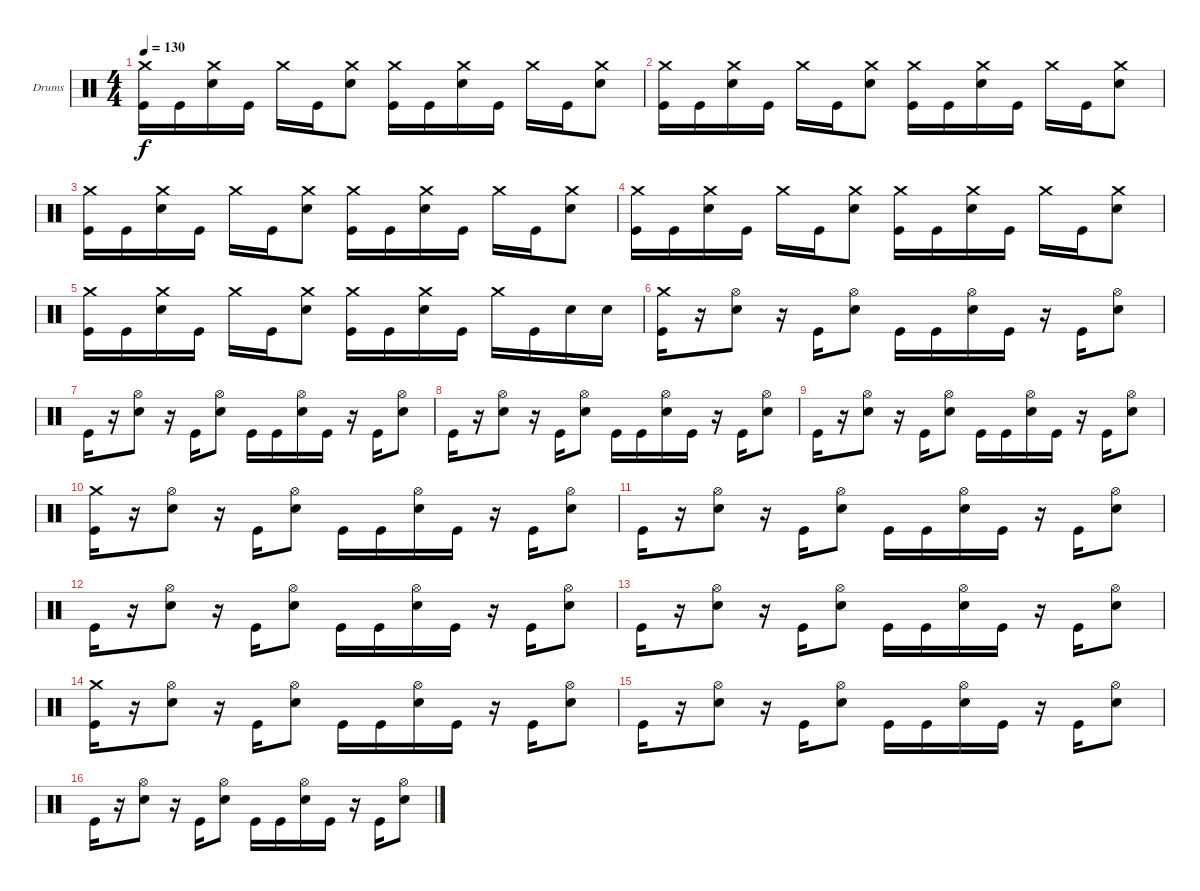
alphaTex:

\bracketExtendMode groupsimilarinstruments
\firstSystemTrackNameOrientation horizontal
\otherSystemsTrackNameOrientation horizontal
\track ("Drumkit" "Drums") {instrument percussion}
\staff {score}
\articulation defaults
\ts (4 4)
\tempo 130
\clef neutral
\ks c
("Kick (hit)" "Crash medium (hit)").16{dy f} "Kick (hit)".16 ("Snare (hit) 2" "Crash medium (hit)").16 "Kick (hit)".16 "Crash medium (hit)".16 "Kick (hit)".16 ("Snare (hit) 2" "Crash medium (hit)").8 ("Kick (hit)" "Crash medium (hit)").16 "Kick (hit)".16 ("Snare (hit) 2" "Crash medium (hit)").16 "Kick (hit)".16 "Crash medium (hit)".16 "Kick (hit)".16 ("Snare (hit) 2" "Crash medium (hit)").8 |
("Kick (hit)" "Crash medium (hit)").16 "Kick (hit)".16 ("Snare (hit) 2" "Crash medium (hit)").16 "Kick (hit)".16 "Crash medium (hit)".16 "Kick (hit)".16 ("Snare (hit) 2" "Crash medium (hit)").8 ("Kick (hit)" "Crash medium (hit)").16 "Kick (hit)".16 ("Snare (hit) 2" "Crash medium (hit)").16 "Kick (hit)".16 "Crash medium (hit)".16 "Kick (hit)".16 ("Snare (hit) 2" "Crash medium (hit)").8 |
("Kick (hit)" "Crash medium (hit)").16 "Kick (hit)".16 ("Snare (hit) 2" "Crash medium (hit)").16 "Kick (hit)".16 "Crash medium (hit)".16 "Kick (hit)".16 ("Snare (hit) 2" "Crash medium (hit)").8 ("Kick (hit)" "Crash medium (hit)").16 "Kick (hit)".16 ("Snare (hit) 2" "Crash medium (hit)").16 "Kick (hit)".16 "Crash medium (hit)".16 "Kick (hit)".16 ("Snare (hit) 2" "Crash medium (hit)").8 |
("Kick (hit)" "Crash medium (hit)").16 "Kick (hit)".16 ("Snare (hit) 2" "Crash medium (hit)").16 "Kick (hit)".16 "Crash medium (hit)".16 "Kick (hit)".16 ("Snare (hit) 2" "Crash medium (hit)").8 ("Kick (hit)" "Crash medium (hit)").16 "Kick (hit)".16 ("Snare (hit) 2" "Crash medium (hit)").16 "Kick (hit)".16 "Crash medium (hit)".16 "Kick (hit)".16 ("Snare (hit) 2" "Crash medium (hit)").8 |
("Kick (hit)" "Crash medium (hit)").16 "Kick (hit)".16 ("Snare (hit) 2" "Crash medium (hit)").16 "Kick (hit)".16 "Crash medium (hit)".16 "Kick (hit)".16 ("Snare (hit) 2" "Crash medium (hit)").8 ("Kick (hit)" "Crash medium (hit)").16 "Kick (hit)".16 ("Snare (hit) 2" "Crash medium (hit)").16 "Kick (hit)".16 "Crash medium (hit)".16 "Kick (hit)".16 "Snare (hit) 2".16 "Snare (hit) 2".16 |
("Kick (hit)" "Crash medium (hit)").16 r.16 ("Snare (hit) 2" "Hi-Hat (open)").8 r.16 "Kick (hit)".16 ("Snare (hit) 2" "Hi-Hat (open)").8 "Kick (hit)".16 "Kick (hit)".16 ("Snare (hit) 2" "Hi-Hat (open)").16 "Kick (hit)".16 r.16 "Kick (hit)".16 ("Snare (hit) 2" "Hi-Hat (open)").8 |
"Kick (hit)".16 r.16 ("Snare (hit) 2" "Hi-Hat (open)").8 r.16 "Kick (hit)".16 ("Snare (hit) 2" "Hi-Hat (open)").8 "Kick (hit)".16 "Kick (hit)".16 ("Snare (hit) 2" "Hi-Hat (open)").16 "Kick (hit)".16 r.16 "Kick (hit)".16 ("Snare (hit) 2" "Hi-Hat (open)").8 |
"Kick (hit)".16 r.16 ("Snare (hit) 2" "Hi-Hat (open)").8 r.16 "Kick (hit)".16 ("Snare (hit) 2" "Hi-Hat (open)").8 "Kick (hit)".16 "Kick (hit)".16 ("Snare (hit) 2" "Hi-Hat (open)").16 "Kick (hit)".16 r.16 "Kick (hit)".16 ("Snare (hit) 2" "Hi-Hat (open)").8 |
"Kick (hit)".16 r.16 ("Snare (hit) 2" "Hi-Hat (open)").8 r.16 "Kick (hit)".16 ("Snare (hit) 2" "Hi-Hat (open)").8 "Kick (hit)".16 "Kick (hit)".16 ("Snare (hit) 2" "Hi-Hat (open)").16 "Kick (hit)".16 r.16 "Kick (hit)".16 ("Snare (hit) 2" "Hi-Hat (open)").8 |
("Kick (hit)" "Crash medium (hit)").16 r.16 ("Snare (hit) 2" "Hi-Hat (open)").8 r.16 "Kick (hit)".16 ("Snare (hit) 2" "Hi-Hat (open)").8 "Kick (hit)".16 "Kick (hit)".16 ("Snare (hit) 2" "Hi-Hat (open)").16 "Kick (hit)".16 r.16 "Kick (hit)".16 ("Snare (hit) 2" "Hi-Hat (open)").8 |
"Kick (hit)".16 r.16 ("Snare (hit) 2" "Hi-Hat (open)").8 r.16 "Kick (hit)".16 ("Snare (hit) 2" "Hi-Hat (open)").8 "Kick (hit)".16 "Kick (hit)".16 ("Snare (hit) 2" "Hi-Hat (open)").16 "Kick (hit)".16 r.16 "Kick (hit)".16 ("Snare (hit) 2" "Hi-Hat (open)").8 |
"Kick (hit)".16 r.16 ("Snare (hit) 2" "Hi-Hat (open)").8 r.16 "Kick (hit)".16 ("Snare (hit) 2" "Hi-Hat (open)").8 "Kick (hit)".16 "Kick (hit)".16 ("Snare (hit) 2" "Hi-Hat (open)").16 "Kick (hit)".16 r.16 "Kick (hit)".16 ("Snare (hit) 2" "Hi-Hat (open)").8 |
"Kick (hit)".16 r.16 ("Snare (hit) 2" "Hi-Hat (open)").8 r.16 "Kick (hit)".16 ("Snare (hit) 2" "Hi-Hat (open)").8 "Kick (hit)".16 "Kick (hit)".16 ("Snare (hit) 2" "Hi-Hat (open)").16 "Kick (hit)".16 r.16 "Kick (hit)".16 ("Snare (hit) 2" "Hi-Hat (open)").8 |
("Kick (hit)" "Crash medium (hit)").16 r.16 ("Snare (hit) 2" "Hi-Hat (open)").8 r.16 "Kick (hit)".16 ("Snare (hit) 2" "Hi-Hat (open)").8 "Kick (hit)".16 "Kick (hit)".16 ("Snare (hit) 2" "Hi-Hat (open)").16 "Kick (hit)".16 r.16 "Kick (hit)".16 ("Snare (hit) 2" "Hi-Hat (open)").8 |
"Kick (hit)".16 r.16 ("Snare (hit) 2" "Hi-Hat (open)").8 r.16 "Kick (hit)".16 ("Snare (hit) 2" "Hi-Hat (open)").8 "Kick (hit)".16 "Kick (hit)".16 ("Snare (hit) 2" "Hi-Hat (open)").16 "Kick (hit)".16 r.16 "Kick (hit)".16 ("Snare (hit) 2" "Hi-Hat (open)").8 |
"Kick (hit)".16 r.16 ("Snare (hit) 2" "Hi-Hat (open)").8 r.16 "Kick (hit)".16 ("Snare (hit) 2" "Hi-Hat (open)").8 "Kick (hit)".16 "Kick (hit)".16 ("Snare (hit) 2" "Hi-Hat (open)").16 "Kick (hit)".16 r.16 "Kick (hit)".16 ("Snare (hit) 2" "Hi-Hat (open)").8
